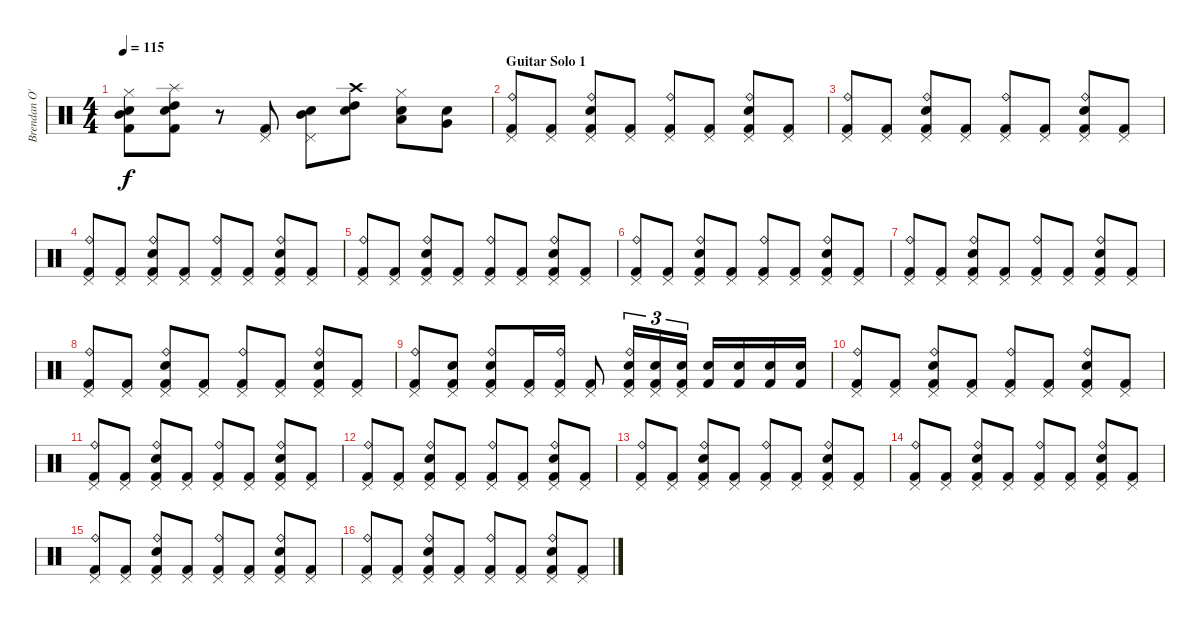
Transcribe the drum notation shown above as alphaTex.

\track ("Brendan O'Neill" "Brendan O'") {instrument percussion}
\staff {score}
\articulation defaults
\ts (4 4)
\tempo 115
\clef neutral
\ks c
("Hi-Hat (closed)" "Mid Tom (hit)" "Snare (hit) 2" "Kick (hit) 2").8{dy f} ("Splash (hit)" "High Tom (hit)" "Electric Snare (hit)" "Kick (hit) 2").8 r.8 ("Pedal Hi-Hat (hit)" "Kick (hit) 2").8 ("Pedal Hi-Hat (hit)" "Mid Tom (hit)" "Electric Snare (hit)").8 ("Crash high (hit)" "High Tom (hit)" "Electric Snare (hit)").8 ("Hi-Hat (closed)" "Low Tom (hit)" "Snare (hit) 2").8 ("Very Low Tom (hit)" "Snare (hit) 2").8 |
\section ("" "Guitar Solo 1")
("Ride (bell)" "Pedal Hi-Hat (hit)" "Kick (hit) 2").8 ("Pedal Hi-Hat (hit)" "Kick (hit) 2").8 ("Ride (bell)" "Pedal Hi-Hat (hit)" "Snare (hit) 2" "Kick (hit) 2").8 ("Pedal Hi-Hat (hit)" "Kick (hit) 2").8 ("Ride (bell)" "Pedal Hi-Hat (hit)" "Kick (hit) 2").8 ("Pedal Hi-Hat (hit)" "Kick (hit) 2").8 ("Ride (bell)" "Pedal Hi-Hat (hit)" "Snare (hit) 2" "Kick (hit) 2").8 ("Pedal Hi-Hat (hit)" "Kick (hit) 2").8 |
("Ride (bell)" "Pedal Hi-Hat (hit)" "Kick (hit) 2").8 ("Pedal Hi-Hat (hit)" "Kick (hit) 2").8 ("Ride (bell)" "Pedal Hi-Hat (hit)" "Snare (hit) 2" "Kick (hit) 2").8 ("Pedal Hi-Hat (hit)" "Kick (hit) 2").8 ("Ride (bell)" "Pedal Hi-Hat (hit)" "Kick (hit) 2").8 ("Pedal Hi-Hat (hit)" "Kick (hit) 2").8 ("Ride (bell)" "Pedal Hi-Hat (hit)" "Snare (hit) 2" "Kick (hit) 2").8 ("Pedal Hi-Hat (hit)" "Kick (hit) 2").8 |
("Ride (bell)" "Pedal Hi-Hat (hit)" "Kick (hit) 2").8 ("Pedal Hi-Hat (hit)" "Kick (hit) 2").8 ("Ride (bell)" "Pedal Hi-Hat (hit)" "Snare (hit) 2" "Kick (hit) 2").8 ("Pedal Hi-Hat (hit)" "Kick (hit) 2").8 ("Ride (bell)" "Pedal Hi-Hat (hit)" "Kick (hit) 2").8 ("Pedal Hi-Hat (hit)" "Kick (hit) 2").8 ("Ride (bell)" "Pedal Hi-Hat (hit)" "Snare (hit) 2" "Kick (hit) 2").8 ("Pedal Hi-Hat (hit)" "Kick (hit) 2").8 |
("Ride (bell)" "Pedal Hi-Hat (hit)" "Kick (hit) 2").8 ("Pedal Hi-Hat (hit)" "Kick (hit) 2").8 ("Ride (bell)" "Pedal Hi-Hat (hit)" "Snare (hit) 2" "Kick (hit) 2").8 ("Pedal Hi-Hat (hit)" "Kick (hit) 2").8 ("Ride (bell)" "Pedal Hi-Hat (hit)" "Kick (hit) 2").8 ("Pedal Hi-Hat (hit)" "Kick (hit) 2").8 ("Ride (bell)" "Pedal Hi-Hat (hit)" "Snare (hit) 2" "Kick (hit) 2").8 ("Pedal Hi-Hat (hit)" "Kick (hit) 2").8 |
("Ride (bell)" "Pedal Hi-Hat (hit)" "Kick (hit) 2").8 ("Pedal Hi-Hat (hit)" "Kick (hit) 2").8 ("Ride (bell)" "Pedal Hi-Hat (hit)" "Snare (hit) 2" "Kick (hit) 2").8 ("Pedal Hi-Hat (hit)" "Kick (hit) 2").8 ("Ride (bell)" "Pedal Hi-Hat (hit)" "Kick (hit) 2").8 ("Pedal Hi-Hat (hit)" "Kick (hit) 2").8 ("Ride (bell)" "Pedal Hi-Hat (hit)" "Snare (hit) 2" "Kick (hit) 2").8 ("Pedal Hi-Hat (hit)" "Kick (hit) 2").8 |
("Ride (bell)" "Pedal Hi-Hat (hit)" "Kick (hit) 2").8 ("Pedal Hi-Hat (hit)" "Kick (hit) 2").8 ("Ride (bell)" "Pedal Hi-Hat (hit)" "Snare (hit) 2" "Kick (hit) 2").8 ("Pedal Hi-Hat (hit)" "Kick (hit) 2").8 ("Ride (bell)" "Pedal Hi-Hat (hit)" "Kick (hit) 2").8 ("Pedal Hi-Hat (hit)" "Kick (hit) 2").8 ("Ride (bell)" "Pedal Hi-Hat (hit)" "Snare (hit) 2" "Kick (hit) 2").8 ("Pedal Hi-Hat (hit)" "Kick (hit) 2").8 |
("Ride (bell)" "Pedal Hi-Hat (hit)" "Kick (hit) 2").8 ("Pedal Hi-Hat (hit)" "Kick (hit) 2").8 ("Ride (bell)" "Pedal Hi-Hat (hit)" "Snare (hit) 2" "Kick (hit) 2").8 ("Pedal Hi-Hat (hit)" "Kick (hit) 2").8 ("Ride (bell)" "Pedal Hi-Hat (hit)" "Kick (hit) 2").8 ("Pedal Hi-Hat (hit)" "Kick (hit) 2").8 ("Ride (bell)" "Pedal Hi-Hat (hit)" "Snare (hit) 2" "Kick (hit) 2").8 ("Pedal Hi-Hat (hit)" "Kick (hit) 2").8 |
("Ride (bell)" "Pedal Hi-Hat (hit)" "Kick (hit) 2").8 ("Pedal Hi-Hat (hit)" "Snare (hit) 2" "Kick (hit) 2").8 ("Ride (bell)" "Pedal Hi-Hat (hit)" "Snare (hit) 2" "Kick (hit) 2").8 ("Pedal Hi-Hat (hit)" "Kick (hit) 2").16 ("Ride (bell)" "Pedal Hi-Hat (hit)" "Kick (hit) 2").16 ("Pedal Hi-Hat (hit)" "Kick (hit) 2").8 ("Ride (bell)" "Pedal Hi-Hat (hit)" "Snare (hit) 2" "Kick (hit) 2").16{tu (3 2)} ("Pedal Hi-Hat (hit)" "Snare (hit) 2" "Kick (hit) 2").16{tu (3 2)} ("Pedal Hi-Hat (hit)" "Snare (hit) 2" "Kick (hit) 2").16{tu (3 2)} ("Electric Snare (hit)" "Kick (hit) 2").16 ("Electric Snare (hit)" "Kick (hit) 2").16 ("Electric Snare (hit)" "Kick (hit) 2").16 ("Electric Snare (hit)" "Kick (hit) 2").16 |
("Ride (bell)" "Pedal Hi-Hat (hit)" "Kick (hit) 2").8 ("Pedal Hi-Hat (hit)" "Kick (hit) 2").8 ("Ride (bell)" "Pedal Hi-Hat (hit)" "Snare (hit) 2" "Kick (hit) 2").8 ("Pedal Hi-Hat (hit)" "Kick (hit) 2").8 ("Ride (bell)" "Pedal Hi-Hat (hit)" "Kick (hit) 2").8 ("Pedal Hi-Hat (hit)" "Kick (hit) 2").8 ("Ride (bell)" "Pedal Hi-Hat (hit)" "Snare (hit) 2" "Kick (hit) 2").8 ("Pedal Hi-Hat (hit)" "Kick (hit) 2").8 |
("Ride (bell)" "Pedal Hi-Hat (hit)" "Kick (hit) 2").8 ("Pedal Hi-Hat (hit)" "Kick (hit) 2").8 ("Ride (bell)" "Pedal Hi-Hat (hit)" "Snare (hit) 2" "Kick (hit) 2").8 ("Pedal Hi-Hat (hit)" "Kick (hit) 2").8 ("Ride (bell)" "Pedal Hi-Hat (hit)" "Kick (hit) 2").8 ("Pedal Hi-Hat (hit)" "Kick (hit) 2").8 ("Ride (bell)" "Pedal Hi-Hat (hit)" "Snare (hit) 2" "Kick (hit) 2").8 ("Pedal Hi-Hat (hit)" "Kick (hit) 2").8 |
("Ride (bell)" "Pedal Hi-Hat (hit)" "Kick (hit) 2").8 ("Pedal Hi-Hat (hit)" "Kick (hit) 2").8 ("Ride (bell)" "Pedal Hi-Hat (hit)" "Snare (hit) 2" "Kick (hit) 2").8 ("Pedal Hi-Hat (hit)" "Kick (hit) 2").8 ("Ride (bell)" "Pedal Hi-Hat (hit)" "Kick (hit) 2").8 ("Pedal Hi-Hat (hit)" "Kick (hit) 2").8 ("Ride (bell)" "Pedal Hi-Hat (hit)" "Snare (hit) 2" "Kick (hit) 2").8 ("Pedal Hi-Hat (hit)" "Kick (hit) 2").8 |
("Ride (bell)" "Pedal Hi-Hat (hit)" "Kick (hit) 2").8 ("Pedal Hi-Hat (hit)" "Kick (hit) 2").8 ("Ride (bell)" "Pedal Hi-Hat (hit)" "Snare (hit) 2" "Kick (hit) 2").8 ("Pedal Hi-Hat (hit)" "Kick (hit) 2").8 ("Ride (bell)" "Pedal Hi-Hat (hit)" "Kick (hit) 2").8 ("Pedal Hi-Hat (hit)" "Kick (hit) 2").8 ("Ride (bell)" "Pedal Hi-Hat (hit)" "Snare (hit) 2" "Kick (hit) 2").8 ("Pedal Hi-Hat (hit)" "Kick (hit) 2").8 |
("Ride (bell)" "Pedal Hi-Hat (hit)" "Kick (hit) 2").8 ("Pedal Hi-Hat (hit)" "Kick (hit) 2").8 ("Ride (bell)" "Pedal Hi-Hat (hit)" "Snare (hit) 2" "Kick (hit) 2").8 ("Pedal Hi-Hat (hit)" "Kick (hit) 2").8 ("Ride (bell)" "Pedal Hi-Hat (hit)" "Kick (hit) 2").8 ("Pedal Hi-Hat (hit)" "Kick (hit) 2").8 ("Ride (bell)" "Pedal Hi-Hat (hit)" "Snare (hit) 2" "Kick (hit) 2").8 ("Pedal Hi-Hat (hit)" "Kick (hit) 2").8 |
("Ride (bell)" "Pedal Hi-Hat (hit)" "Kick (hit) 2").8 ("Pedal Hi-Hat (hit)" "Kick (hit) 2").8 ("Ride (bell)" "Pedal Hi-Hat (hit)" "Snare (hit) 2" "Kick (hit) 2").8 ("Pedal Hi-Hat (hit)" "Kick (hit) 2").8 ("Ride (bell)" "Pedal Hi-Hat (hit)" "Kick (hit) 2").8 ("Pedal Hi-Hat (hit)" "Kick (hit) 2").8 ("Ride (bell)" "Pedal Hi-Hat (hit)" "Snare (hit) 2" "Kick (hit) 2").8 ("Pedal Hi-Hat (hit)" "Kick (hit) 2").8 |
("Ride (bell)" "Pedal Hi-Hat (hit)" "Kick (hit) 2").8 ("Pedal Hi-Hat (hit)" "Kick (hit) 2").8 ("Ride (bell)" "Pedal Hi-Hat (hit)" "Snare (hit) 2" "Kick (hit) 2").8 ("Pedal Hi-Hat (hit)" "Kick (hit) 2").8 ("Ride (bell)" "Pedal Hi-Hat (hit)" "Kick (hit) 2").8 ("Pedal Hi-Hat (hit)" "Kick (hit) 2").8 ("Ride (bell)" "Pedal Hi-Hat (hit)" "Snare (hit) 2" "Kick (hit) 2").8 ("Pedal Hi-Hat (hit)" "Kick (hit) 2").8
